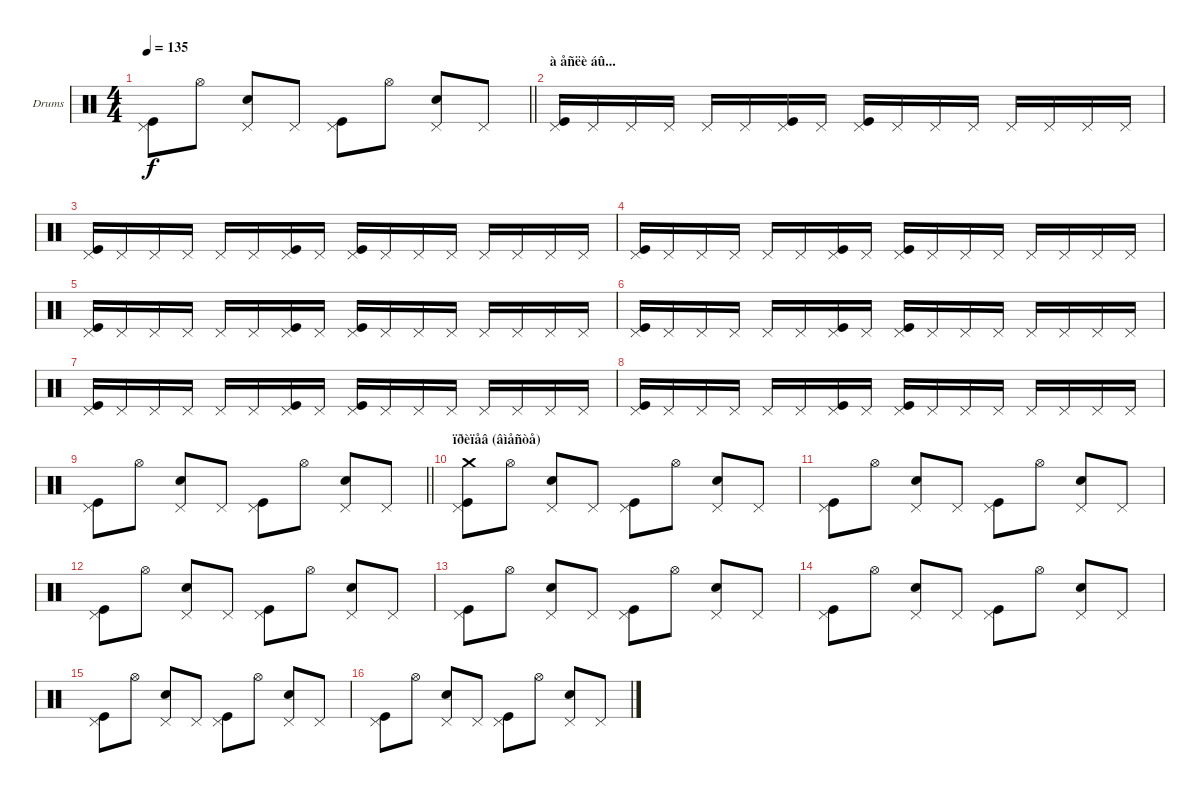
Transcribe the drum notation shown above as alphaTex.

\bracketExtendMode groupsimilarinstruments
\firstSystemTrackNameOrientation horizontal
\otherSystemsTrackNameOrientation horizontal
\track ("Drumkit" "Drums") {instrument percussion}
\staff {score}
\articulation defaults
\ts (4 4)
\tempo 135
\clef neutral
\barLineRight lightlight
\ks c
("Pedal Hi-Hat (hit)" "Kick (hit)").8{dy f} "Hi-Hat (open)".8 ("Pedal Hi-Hat (hit)" "Snare (hit) 2").8 "Pedal Hi-Hat (hit)".8 ("Pedal Hi-Hat (hit)" "Kick (hit)").8 "Hi-Hat (open)".8 ("Pedal Hi-Hat (hit)" "Snare (hit) 2").8 "Pedal Hi-Hat (hit)".8 |
\section ("" "à åñëè áû...")
("Pedal Hi-Hat (hit)" "Kick (hit)").16 "Pedal Hi-Hat (hit)".16 "Pedal Hi-Hat (hit)".16 "Pedal Hi-Hat (hit)".16 "Pedal Hi-Hat (hit)".16 "Pedal Hi-Hat (hit)".16 ("Pedal Hi-Hat (hit)" "Kick (hit)").16 "Pedal Hi-Hat (hit)".16 ("Pedal Hi-Hat (hit)" "Kick (hit)").16 "Pedal Hi-Hat (hit)".16 "Pedal Hi-Hat (hit)".16 "Pedal Hi-Hat (hit)".16 "Pedal Hi-Hat (hit)".16 "Pedal Hi-Hat (hit)".16 "Pedal Hi-Hat (hit)".16 "Pedal Hi-Hat (hit)".16 |
("Pedal Hi-Hat (hit)" "Kick (hit)").16 "Pedal Hi-Hat (hit)".16 "Pedal Hi-Hat (hit)".16 "Pedal Hi-Hat (hit)".16 "Pedal Hi-Hat (hit)".16 "Pedal Hi-Hat (hit)".16 ("Pedal Hi-Hat (hit)" "Kick (hit)").16 "Pedal Hi-Hat (hit)".16 ("Pedal Hi-Hat (hit)" "Kick (hit)").16 "Pedal Hi-Hat (hit)".16 "Pedal Hi-Hat (hit)".16 "Pedal Hi-Hat (hit)".16 "Pedal Hi-Hat (hit)".16 "Pedal Hi-Hat (hit)".16 "Pedal Hi-Hat (hit)".16 "Pedal Hi-Hat (hit)".16 |
("Pedal Hi-Hat (hit)" "Kick (hit)").16 "Pedal Hi-Hat (hit)".16 "Pedal Hi-Hat (hit)".16 "Pedal Hi-Hat (hit)".16 "Pedal Hi-Hat (hit)".16 "Pedal Hi-Hat (hit)".16 ("Pedal Hi-Hat (hit)" "Kick (hit)").16 "Pedal Hi-Hat (hit)".16 ("Pedal Hi-Hat (hit)" "Kick (hit)").16 "Pedal Hi-Hat (hit)".16 "Pedal Hi-Hat (hit)".16 "Pedal Hi-Hat (hit)".16 "Pedal Hi-Hat (hit)".16 "Pedal Hi-Hat (hit)".16 "Pedal Hi-Hat (hit)".16 "Pedal Hi-Hat (hit)".16 |
("Pedal Hi-Hat (hit)" "Kick (hit)").16 "Pedal Hi-Hat (hit)".16 "Pedal Hi-Hat (hit)".16 "Pedal Hi-Hat (hit)".16 "Pedal Hi-Hat (hit)".16 "Pedal Hi-Hat (hit)".16 ("Pedal Hi-Hat (hit)" "Kick (hit)").16 "Pedal Hi-Hat (hit)".16 ("Pedal Hi-Hat (hit)" "Kick (hit)").16 "Pedal Hi-Hat (hit)".16 "Pedal Hi-Hat (hit)".16 "Pedal Hi-Hat (hit)".16 "Pedal Hi-Hat (hit)".16 "Pedal Hi-Hat (hit)".16 "Pedal Hi-Hat (hit)".16 "Pedal Hi-Hat (hit)".16 |
("Pedal Hi-Hat (hit)" "Kick (hit)").16 "Pedal Hi-Hat (hit)".16 "Pedal Hi-Hat (hit)".16 "Pedal Hi-Hat (hit)".16 "Pedal Hi-Hat (hit)".16 "Pedal Hi-Hat (hit)".16 ("Pedal Hi-Hat (hit)" "Kick (hit)").16 "Pedal Hi-Hat (hit)".16 ("Pedal Hi-Hat (hit)" "Kick (hit)").16 "Pedal Hi-Hat (hit)".16 "Pedal Hi-Hat (hit)".16 "Pedal Hi-Hat (hit)".16 "Pedal Hi-Hat (hit)".16 "Pedal Hi-Hat (hit)".16 "Pedal Hi-Hat (hit)".16 "Pedal Hi-Hat (hit)".16 |
("Pedal Hi-Hat (hit)" "Kick (hit)").16 "Pedal Hi-Hat (hit)".16 "Pedal Hi-Hat (hit)".16 "Pedal Hi-Hat (hit)".16 "Pedal Hi-Hat (hit)".16 "Pedal Hi-Hat (hit)".16 ("Pedal Hi-Hat (hit)" "Kick (hit)").16 "Pedal Hi-Hat (hit)".16 ("Pedal Hi-Hat (hit)" "Kick (hit)").16 "Pedal Hi-Hat (hit)".16 "Pedal Hi-Hat (hit)".16 "Pedal Hi-Hat (hit)".16 "Pedal Hi-Hat (hit)".16 "Pedal Hi-Hat (hit)".16 "Pedal Hi-Hat (hit)".16 "Pedal Hi-Hat (hit)".16 |
("Pedal Hi-Hat (hit)" "Kick (hit)").16 "Pedal Hi-Hat (hit)".16 "Pedal Hi-Hat (hit)".16 "Pedal Hi-Hat (hit)".16 "Pedal Hi-Hat (hit)".16 "Pedal Hi-Hat (hit)".16 ("Pedal Hi-Hat (hit)" "Kick (hit)").16 "Pedal Hi-Hat (hit)".16 ("Pedal Hi-Hat (hit)" "Kick (hit)").16 "Pedal Hi-Hat (hit)".16 "Pedal Hi-Hat (hit)".16 "Pedal Hi-Hat (hit)".16 "Pedal Hi-Hat (hit)".16 "Pedal Hi-Hat (hit)".16 "Pedal Hi-Hat (hit)".16 "Pedal Hi-Hat (hit)".16 |
\barLineRight lightlight
("Pedal Hi-Hat (hit)" "Kick (hit)").8 "Hi-Hat (open)".8 ("Pedal Hi-Hat (hit)" "Snare (hit) 2").8 "Pedal Hi-Hat (hit)".8 ("Pedal Hi-Hat (hit)" "Kick (hit)").8 "Hi-Hat (open)".8 ("Pedal Hi-Hat (hit)" "Snare (hit) 2").8 "Pedal Hi-Hat (hit)".8 |
\section ("" "ïðèïåâ (âìåñòå)")
("Pedal Hi-Hat (hit)" "Kick (hit)" "Crash medium (hit)").8 "Hi-Hat (open)".8 ("Pedal Hi-Hat (hit)" "Snare (hit) 2").8 "Pedal Hi-Hat (hit)".8 ("Pedal Hi-Hat (hit)" "Kick (hit)").8 "Hi-Hat (open)".8 ("Pedal Hi-Hat (hit)" "Snare (hit) 2").8 "Pedal Hi-Hat (hit)".8 |
("Pedal Hi-Hat (hit)" "Kick (hit)").8 "Hi-Hat (open)".8 ("Pedal Hi-Hat (hit)" "Snare (hit) 2").8 "Pedal Hi-Hat (hit)".8 ("Pedal Hi-Hat (hit)" "Kick (hit)").8 "Hi-Hat (open)".8 ("Pedal Hi-Hat (hit)" "Snare (hit) 2").8 "Pedal Hi-Hat (hit)".8 |
("Pedal Hi-Hat (hit)" "Kick (hit)").8 "Hi-Hat (open)".8 ("Pedal Hi-Hat (hit)" "Snare (hit) 2").8 "Pedal Hi-Hat (hit)".8 ("Pedal Hi-Hat (hit)" "Kick (hit)").8 "Hi-Hat (open)".8 ("Pedal Hi-Hat (hit)" "Snare (hit) 2").8 "Pedal Hi-Hat (hit)".8 |
("Pedal Hi-Hat (hit)" "Kick (hit)").8 "Hi-Hat (open)".8 ("Pedal Hi-Hat (hit)" "Snare (hit) 2").8 "Pedal Hi-Hat (hit)".8 ("Pedal Hi-Hat (hit)" "Kick (hit)").8 "Hi-Hat (open)".8 ("Pedal Hi-Hat (hit)" "Snare (hit) 2").8 "Pedal Hi-Hat (hit)".8 |
("Pedal Hi-Hat (hit)" "Kick (hit)").8 "Hi-Hat (open)".8 ("Pedal Hi-Hat (hit)" "Snare (hit) 2").8 "Pedal Hi-Hat (hit)".8 ("Pedal Hi-Hat (hit)" "Kick (hit)").8 "Hi-Hat (open)".8 ("Pedal Hi-Hat (hit)" "Snare (hit) 2").8 "Pedal Hi-Hat (hit)".8 |
("Pedal Hi-Hat (hit)" "Kick (hit)").8 "Hi-Hat (open)".8 ("Pedal Hi-Hat (hit)" "Snare (hit) 2").8 "Pedal Hi-Hat (hit)".8 ("Pedal Hi-Hat (hit)" "Kick (hit)").8 "Hi-Hat (open)".8 ("Pedal Hi-Hat (hit)" "Snare (hit) 2").8 "Pedal Hi-Hat (hit)".8 |
("Pedal Hi-Hat (hit)" "Kick (hit)").8 "Hi-Hat (open)".8 ("Pedal Hi-Hat (hit)" "Snare (hit) 2").8 "Pedal Hi-Hat (hit)".8 ("Pedal Hi-Hat (hit)" "Kick (hit)").8 "Hi-Hat (open)".8 ("Pedal Hi-Hat (hit)" "Snare (hit) 2").8 "Pedal Hi-Hat (hit)".8
